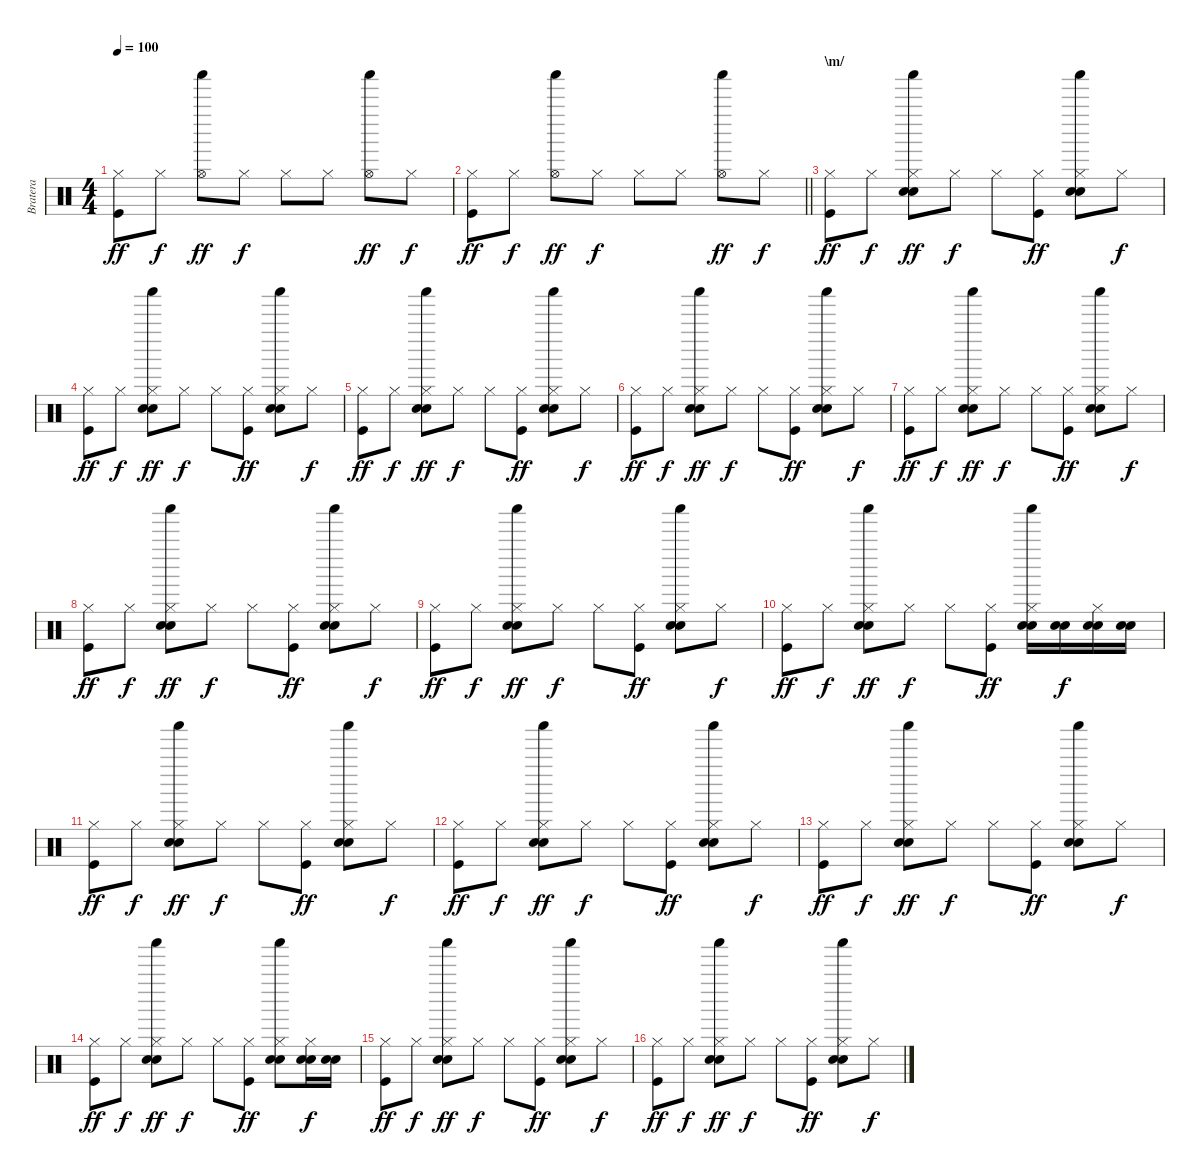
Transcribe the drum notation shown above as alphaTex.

\track ("Bratera" "Bratera") {instrument percussion}
\staff {score}
\articulation defaults
\ts (4 4)
\tempo 100
\clef neutral
\ks c
("Hi-Hat (closed)" "Kick (hit)").8{dy ff} "Hi-Hat (closed)".8{dy f} ("Hi-Hat (open)" "Shaker (hit)").8{dy ff} "Hi-Hat (closed)".8{dy f} "Hi-Hat (closed)".8 "Hi-Hat (closed)".8 ("Hi-Hat (open)" "Shaker (hit)").8{dy ff} "Hi-Hat (closed)".8{dy f} |
\barLineRight lightlight
("Hi-Hat (closed)" "Kick (hit)").8{dy ff} "Hi-Hat (closed)".8{dy f} ("Hi-Hat (open)" "Shaker (hit)").8{dy ff} "Hi-Hat (closed)".8{dy f} "Hi-Hat (closed)".8 "Hi-Hat (closed)".8 ("Hi-Hat (open)" "Shaker (hit)").8{dy ff} "Hi-Hat (closed)".8{dy f} |
\section ("" "\\m/")
("Hi-Hat (closed)" "Kick (hit)").8{dy ff} "Hi-Hat (closed)".8{dy f} ("Hi-Hat (closed)" "Shaker (hit)" "Snare (hit) 2" "Electric Snare (hit)").8{dy ff} "Hi-Hat (closed)".8{dy f} "Hi-Hat (closed)".8 ("Hi-Hat (closed)" "Kick (hit)").8{dy ff} ("Hi-Hat (closed)" "Shaker (hit)" "Snare (hit) 2" "Electric Snare (hit)").8 "Hi-Hat (closed)".8{dy f} |
("Hi-Hat (closed)" "Kick (hit)").8{dy ff} "Hi-Hat (closed)".8{dy f} ("Hi-Hat (closed)" "Shaker (hit)" "Snare (hit) 2" "Electric Snare (hit)").8{dy ff} "Hi-Hat (closed)".8{dy f} "Hi-Hat (closed)".8 ("Hi-Hat (closed)" "Kick (hit)").8{dy ff} ("Hi-Hat (closed)" "Shaker (hit)" "Snare (hit) 2" "Electric Snare (hit)").8 "Hi-Hat (closed)".8{dy f} |
("Hi-Hat (closed)" "Kick (hit)").8{dy ff} "Hi-Hat (closed)".8{dy f} ("Hi-Hat (closed)" "Shaker (hit)" "Snare (hit) 2" "Electric Snare (hit)").8{dy ff} "Hi-Hat (closed)".8{dy f} "Hi-Hat (closed)".8 ("Hi-Hat (closed)" "Kick (hit)").8{dy ff} ("Hi-Hat (closed)" "Shaker (hit)" "Snare (hit) 2" "Electric Snare (hit)").8 "Hi-Hat (closed)".8{dy f} |
("Hi-Hat (closed)" "Kick (hit)").8{dy ff} "Hi-Hat (closed)".8{dy f} ("Hi-Hat (closed)" "Shaker (hit)" "Snare (hit) 2" "Electric Snare (hit)").8{dy ff} "Hi-Hat (closed)".8{dy f} "Hi-Hat (closed)".8 ("Hi-Hat (closed)" "Kick (hit)").8{dy ff} ("Hi-Hat (closed)" "Shaker (hit)" "Snare (hit) 2" "Electric Snare (hit)").8 "Hi-Hat (closed)".8{dy f} |
("Hi-Hat (closed)" "Kick (hit)").8{dy ff} "Hi-Hat (closed)".8{dy f} ("Hi-Hat (closed)" "Shaker (hit)" "Snare (hit) 2" "Electric Snare (hit)").8{dy ff} "Hi-Hat (closed)".8{dy f} "Hi-Hat (closed)".8 ("Hi-Hat (closed)" "Kick (hit)").8{dy ff} ("Hi-Hat (closed)" "Shaker (hit)" "Snare (hit) 2" "Electric Snare (hit)").8 "Hi-Hat (closed)".8{dy f} |
("Hi-Hat (closed)" "Kick (hit)").8{dy ff} "Hi-Hat (closed)".8{dy f} ("Hi-Hat (closed)" "Shaker (hit)" "Snare (hit) 2" "Electric Snare (hit)").8{dy ff} "Hi-Hat (closed)".8{dy f} "Hi-Hat (closed)".8 ("Hi-Hat (closed)" "Kick (hit)").8{dy ff} ("Hi-Hat (closed)" "Shaker (hit)" "Snare (hit) 2" "Electric Snare (hit)").8 "Hi-Hat (closed)".8{dy f} |
("Hi-Hat (closed)" "Kick (hit)").8{dy ff} "Hi-Hat (closed)".8{dy f} ("Hi-Hat (closed)" "Shaker (hit)" "Snare (hit) 2" "Electric Snare (hit)").8{dy ff} "Hi-Hat (closed)".8{dy f} "Hi-Hat (closed)".8 ("Hi-Hat (closed)" "Kick (hit)").8{dy ff} ("Hi-Hat (closed)" "Shaker (hit)" "Snare (hit) 2" "Electric Snare (hit)").8 "Hi-Hat (closed)".8{dy f} |
("Hi-Hat (closed)" "Kick (hit)").8{dy ff} "Hi-Hat (closed)".8{dy f} ("Hi-Hat (closed)" "Shaker (hit)" "Snare (hit) 2" "Electric Snare (hit)").8{dy ff} "Hi-Hat (closed)".8{dy f} "Hi-Hat (closed)".8 ("Hi-Hat (closed)" "Kick (hit)").8{dy ff} ("Hi-Hat (closed)" "Shaker (hit)" "Snare (hit) 2" "Electric Snare (hit)").16 ("Snare (hit) 2" "Electric Snare (hit)").16{dy f} ("Hi-Hat (closed)" "Snare (hit) 2" "Electric Snare (hit)").16 ("Snare (hit) 2" "Electric Snare (hit)").16 |
("Hi-Hat (closed)" "Kick (hit)").8{dy ff} "Hi-Hat (closed)".8{dy f} ("Hi-Hat (closed)" "Shaker (hit)" "Snare (hit) 2" "Electric Snare (hit)").8{dy ff} "Hi-Hat (closed)".8{dy f} "Hi-Hat (closed)".8 ("Hi-Hat (closed)" "Kick (hit)").8{dy ff} ("Hi-Hat (closed)" "Shaker (hit)" "Snare (hit) 2" "Electric Snare (hit)").8 "Hi-Hat (closed)".8{dy f} |
("Hi-Hat (closed)" "Kick (hit)").8{dy ff} "Hi-Hat (closed)".8{dy f} ("Hi-Hat (closed)" "Shaker (hit)" "Snare (hit) 2" "Electric Snare (hit)").8{dy ff} "Hi-Hat (closed)".8{dy f} "Hi-Hat (closed)".8 ("Hi-Hat (closed)" "Kick (hit)").8{dy ff} ("Hi-Hat (closed)" "Shaker (hit)" "Snare (hit) 2" "Electric Snare (hit)").8 "Hi-Hat (closed)".8{dy f} |
("Hi-Hat (closed)" "Kick (hit)").8{dy ff} "Hi-Hat (closed)".8{dy f} ("Hi-Hat (closed)" "Shaker (hit)" "Snare (hit) 2" "Electric Snare (hit)").8{dy ff} "Hi-Hat (closed)".8{dy f} "Hi-Hat (closed)".8 ("Hi-Hat (closed)" "Kick (hit)").8{dy ff} ("Hi-Hat (closed)" "Shaker (hit)" "Snare (hit) 2" "Electric Snare (hit)").8 "Hi-Hat (closed)".8{dy f} |
("Hi-Hat (closed)" "Kick (hit)").8{dy ff} "Hi-Hat (closed)".8{dy f} ("Hi-Hat (closed)" "Shaker (hit)" "Snare (hit) 2" "Electric Snare (hit)").8{dy ff} "Hi-Hat (closed)".8{dy f} "Hi-Hat (closed)".8 ("Hi-Hat (closed)" "Kick (hit)").8{dy ff} ("Hi-Hat (closed)" "Shaker (hit)" "Snare (hit) 2" "Electric Snare (hit)").8 ("Hi-Hat (closed)" "Snare (hit) 2" "Electric Snare (hit)").16{dy f} ("Snare (hit) 2" "Electric Snare (hit)").16 |
("Hi-Hat (closed)" "Kick (hit)").8{dy ff} "Hi-Hat (closed)".8{dy f} ("Hi-Hat (closed)" "Shaker (hit)" "Snare (hit) 2" "Electric Snare (hit)").8{dy ff} "Hi-Hat (closed)".8{dy f} "Hi-Hat (closed)".8 ("Hi-Hat (closed)" "Kick (hit)").8{dy ff} ("Hi-Hat (closed)" "Shaker (hit)" "Snare (hit) 2" "Electric Snare (hit)").8 "Hi-Hat (closed)".8{dy f} |
("Hi-Hat (closed)" "Kick (hit)").8{dy ff} "Hi-Hat (closed)".8{dy f} ("Hi-Hat (closed)" "Shaker (hit)" "Snare (hit) 2" "Electric Snare (hit)").8{dy ff} "Hi-Hat (closed)".8{dy f} "Hi-Hat (closed)".8 ("Hi-Hat (closed)" "Kick (hit)").8{dy ff} ("Hi-Hat (closed)" "Shaker (hit)" "Snare (hit) 2" "Electric Snare (hit)").8 "Hi-Hat (closed)".8{dy f}
